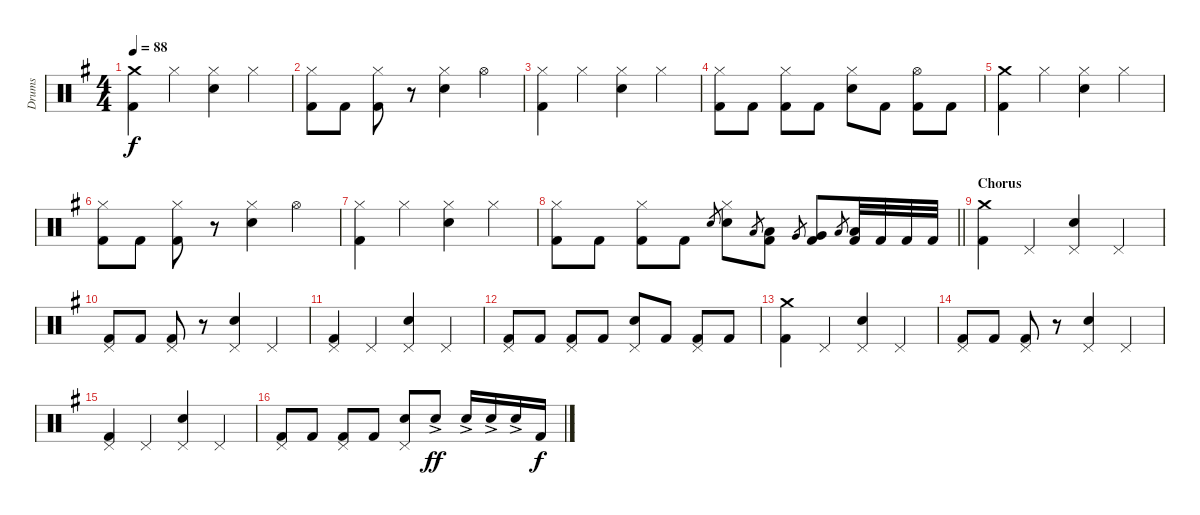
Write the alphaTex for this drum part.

\track ("Drums" "Drums") {instrument percussion}
\staff {score}
\articulation defaults
\ts (4 4)
\tempo 88
\clef neutral
\ks g
("Crash medium (hit)" "Kick (hit) 2").4{dy f} "Hi-Hat (closed)".4 ("Hi-Hat (closed)" "Electric Snare (hit)").4 "Hi-Hat (closed)".4 |
("Hi-Hat (closed)" "Kick (hit) 2").8 "Kick (hit) 2".8 ("Hi-Hat (closed)" "Kick (hit) 2").8 r.8 ("Hi-Hat (closed)" "Electric Snare (hit)").4 "Hi-Hat (open)".4 |
("Hi-Hat (closed)" "Kick (hit) 2").4 "Hi-Hat (closed)".4 ("Hi-Hat (closed)" "Electric Snare (hit)").4 "Hi-Hat (closed)".4 |
("Hi-Hat (closed)" "Kick (hit) 2").8 "Kick (hit) 2".8 ("Hi-Hat (closed)" "Kick (hit) 2").8 "Kick (hit) 2".8 ("Hi-Hat (closed)" "Electric Snare (hit)").8 "Kick (hit) 2".8 ("Hi-Hat (open)" "Kick (hit) 2").8 "Kick (hit) 2".8 |
("Crash medium (hit)" "Kick (hit) 2").4 "Hi-Hat (closed)".4 ("Hi-Hat (closed)" "Electric Snare (hit)").4 "Hi-Hat (closed)".4 |
("Hi-Hat (closed)" "Kick (hit) 2").8 "Kick (hit) 2".8 ("Hi-Hat (closed)" "Kick (hit) 2").8 r.8 ("Hi-Hat (closed)" "Electric Snare (hit)").4 "Hi-Hat (open)".4 |
("Hi-Hat (closed)" "Kick (hit) 2").4 "Hi-Hat (closed)".4 ("Hi-Hat (closed)" "Electric Snare (hit)").4 "Hi-Hat (closed)".4 |
\barLineRight lightlight
("Hi-Hat (closed)" "Kick (hit) 2").8 "Kick (hit) 2".8 ("Hi-Hat (closed)" "Kick (hit) 2").8 "Kick (hit) 2".8 "Electric Snare (hit)".8{gr} ("Hi-Hat (closed)" "Electric Snare (hit)").8 "Low Tom (hit)".8{gr} ("Low Tom (hit)" "Kick (hit) 2").8 "Very Low Tom (hit)".8{gr} ("Very Low Tom (hit)" "Kick (hit) 2").8 "Low Floor Tom (hit)".8{gr} ("Low Floor Tom (hit)" "Kick (hit) 2").32 "Kick (hit) 2".32 "Kick (hit) 2".32 "Kick (hit) 2".32 |
\section ("" "Chorus")
("Crash medium (hit)" "Kick (hit) 2").4 "Pedal Hi-Hat (hit)".4 ("Pedal Hi-Hat (hit)" "Electric Snare (hit)").4 "Pedal Hi-Hat (hit)".4 |
("Pedal Hi-Hat (hit)" "Kick (hit) 2").8 "Kick (hit) 2".8 ("Pedal Hi-Hat (hit)" "Kick (hit) 2").8 r.8 ("Pedal Hi-Hat (hit)" "Electric Snare (hit)").4 "Pedal Hi-Hat (hit)".4 |
("Pedal Hi-Hat (hit)" "Kick (hit) 2").4 "Pedal Hi-Hat (hit)".4 ("Pedal Hi-Hat (hit)" "Electric Snare (hit)").4 "Pedal Hi-Hat (hit)".4 |
("Pedal Hi-Hat (hit)" "Kick (hit) 2").8 "Kick (hit) 2".8 ("Pedal Hi-Hat (hit)" "Kick (hit) 2").8 "Kick (hit) 2".8 ("Pedal Hi-Hat (hit)" "Electric Snare (hit)").8 "Kick (hit) 2".8 ("Pedal Hi-Hat (hit)" "Kick (hit) 2").8 "Kick (hit) 2".8 |
("Crash medium (hit)" "Kick (hit) 2").4 "Pedal Hi-Hat (hit)".4 ("Pedal Hi-Hat (hit)" "Electric Snare (hit)").4 "Pedal Hi-Hat (hit)".4 |
("Pedal Hi-Hat (hit)" "Kick (hit) 2").8 "Kick (hit) 2".8 ("Pedal Hi-Hat (hit)" "Kick (hit) 2").8 r.8 ("Pedal Hi-Hat (hit)" "Electric Snare (hit)").4 "Pedal Hi-Hat (hit)".4 |
("Pedal Hi-Hat (hit)" "Kick (hit) 2").4 "Pedal Hi-Hat (hit)".4 ("Pedal Hi-Hat (hit)" "Electric Snare (hit)").4 "Pedal Hi-Hat (hit)".4 |
("Pedal Hi-Hat (hit)" "Kick (hit) 2").8 "Kick (hit) 2".8 ("Pedal Hi-Hat (hit)" "Kick (hit) 2").8 "Kick (hit) 2".8 ("Pedal Hi-Hat (hit)" "Electric Snare (hit)").8 "Electric Snare (hit)"{ac}.8{dy ff} "Electric Snare (hit)"{ac}.16 "Electric Snare (hit)"{ac}.16 "Electric Snare (hit)"{ac}.16 "Kick (hit) 2".16{dy f}
